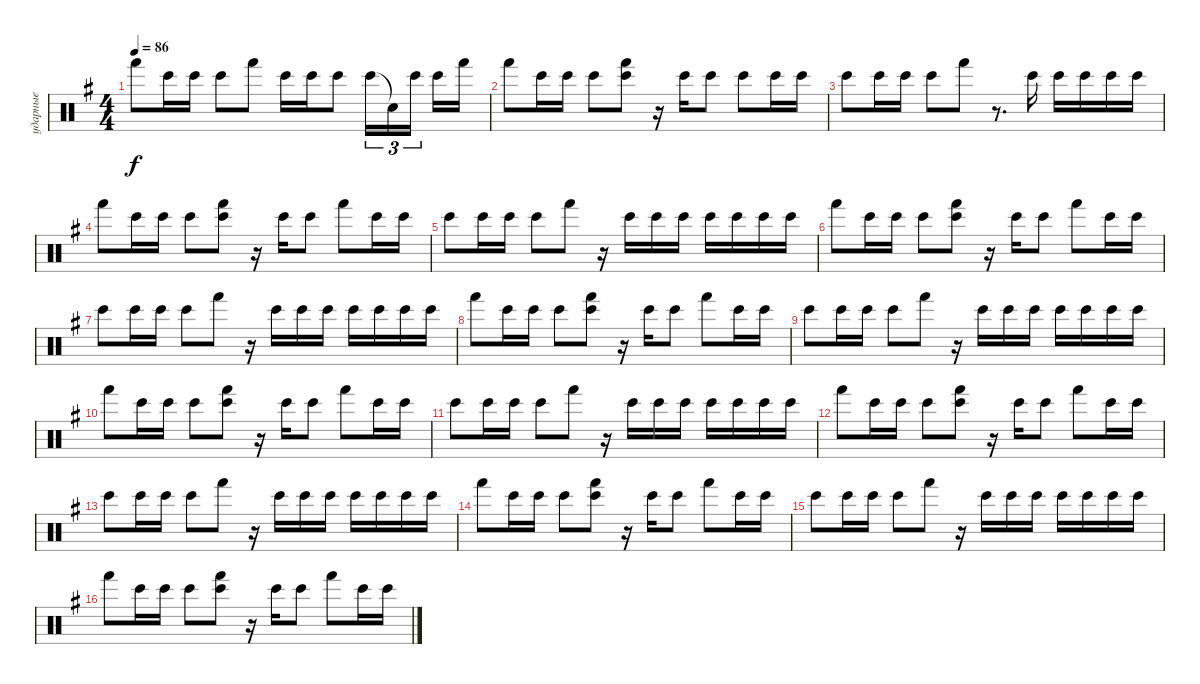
\track ("ударные" "ударные") {instrument percussion}
\staff {score}
\articulation defaults
\ts (4 4)
\tempo 86
\clef neutral
\ks eminor "Hand (hit)".8{dy f} "Bongo High (hit)".16 "Bongo High (hit)".16 "Bongo High (hit)".8 "Hand (hit)".8 "Bongo High (hit)".16 "Bongo High (hit)".16 "Bongo High (hit)".8 "Bongo High (hit)".16{tu (3 2)} "Snare (hit)"{t}.16{tu (3 2)} "Bongo High (hit)".16{tu (3 2) beam splitsecondary} "Bongo High (hit)".16 "Hand (hit)".16
|
"Hand (hit)".8 "Bongo High (hit)".16 "Bongo High (hit)".16 "Bongo High (hit)".8 ("Bongo High (hit)" "Hand (hit)").8 r.16 "Bongo High (hit)".16 "Bongo High (hit)".8 "Bongo High (hit)".8 "Bongo High (hit)".16 "Bongo High (hit)".16 |
"Bongo High (hit)".8 "Bongo High (hit)".16 "Bongo High (hit)".16 "Bongo High (hit)".8 "Hand (hit)".8 r.8{d} "Bongo High (hit)".16 "Bongo High (hit)".16 "Bongo High (hit)".16 "Bongo High (hit)".16 "Bongo High (hit)".16 |
"Hand (hit)".8 "Bongo High (hit)".16 "Bongo High (hit)".16 "Bongo High (hit)".8 ("Bongo High (hit)" "Hand (hit)").8 r.16 "Bongo High (hit)".16 "Bongo High (hit)".8 "Hand (hit)".8 "Bongo High (hit)".16 "Bongo High (hit)".16 |
"Bongo High (hit)".8 "Bongo High (hit)".16 "Bongo High (hit)".16 "Bongo High (hit)".8 "Hand (hit)".8 r.16 "Bongo High (hit)".16 "Bongo High (hit)".16 "Bongo High (hit)".16 "Bongo High (hit)".16 "Bongo High (hit)".16 "Bongo High (hit)".16 "Bongo High (hit)".16 |
"Hand (hit)".8 "Bongo High (hit)".16 "Bongo High (hit)".16 "Bongo High (hit)".8 ("Bongo High (hit)" "Hand (hit)").8 r.16 "Bongo High (hit)".16 "Bongo High (hit)".8 "Hand (hit)".8 "Bongo High (hit)".16 "Bongo High (hit)".16 |
"Bongo High (hit)".8 "Bongo High (hit)".16 "Bongo High (hit)".16 "Bongo High (hit)".8 "Hand (hit)".8 r.16 "Bongo High (hit)".16 "Bongo High (hit)".16 "Bongo High (hit)".16 "Bongo High (hit)".16 "Bongo High (hit)".16 "Bongo High (hit)".16 "Bongo High (hit)".16 |
"Hand (hit)".8 "Bongo High (hit)".16 "Bongo High (hit)".16 "Bongo High (hit)".8 ("Bongo High (hit)" "Hand (hit)").8 r.16 "Bongo High (hit)".16 "Bongo High (hit)".8 "Hand (hit)".8 "Bongo High (hit)".16 "Bongo High (hit)".16 |
"Bongo High (hit)".8 "Bongo High (hit)".16 "Bongo High (hit)".16 "Bongo High (hit)".8 "Hand (hit)".8 r.16 "Bongo High (hit)".16 "Bongo High (hit)".16 "Bongo High (hit)".16 "Bongo High (hit)".16 "Bongo High (hit)".16 "Bongo High (hit)".16 "Bongo High (hit)".16 |
"Hand (hit)".8 "Bongo High (hit)".16 "Bongo High (hit)".16 "Bongo High (hit)".8 ("Bongo High (hit)" "Hand (hit)").8 r.16 "Bongo High (hit)".16 "Bongo High (hit)".8 "Hand (hit)".8 "Bongo High (hit)".16 "Bongo High (hit)".16 |
"Bongo High (hit)".8 "Bongo High (hit)".16 "Bongo High (hit)".16 "Bongo High (hit)".8 "Hand (hit)".8 r.16 "Bongo High (hit)".16 "Bongo High (hit)".16 "Bongo High (hit)".16 "Bongo High (hit)".16 "Bongo High (hit)".16 "Bongo High (hit)".16 "Bongo High (hit)".16 |
"Hand (hit)".8 "Bongo High (hit)".16 "Bongo High (hit)".16 "Bongo High (hit)".8 ("Bongo High (hit)" "Hand (hit)").8 r.16 "Bongo High (hit)".16 "Bongo High (hit)".8 "Hand (hit)".8 "Bongo High (hit)".16 "Bongo High (hit)".16 |
"Bongo High (hit)".8 "Bongo High (hit)".16 "Bongo High (hit)".16 "Bongo High (hit)".8 "Hand (hit)".8 r.16 "Bongo High (hit)".16 "Bongo High (hit)".16 "Bongo High (hit)".16 "Bongo High (hit)".16 "Bongo High (hit)".16 "Bongo High (hit)".16 "Bongo High (hit)".16 |
"Hand (hit)".8 "Bongo High (hit)".16 "Bongo High (hit)".16 "Bongo High (hit)".8 ("Bongo High (hit)" "Hand (hit)").8 r.16 "Bongo High (hit)".16 "Bongo High (hit)".8 "Hand (hit)".8 "Bongo High (hit)".16 "Bongo High (hit)".16 |
"Bongo High (hit)".8 "Bongo High (hit)".16 "Bongo High (hit)".16 "Bongo High (hit)".8 "Hand (hit)".8 r.16 "Bongo High (hit)".16 "Bongo High (hit)".16 "Bongo High (hit)".16 "Bongo High (hit)".16 "Bongo High (hit)".16 "Bongo High (hit)".16 "Bongo High (hit)".16 |
"Hand (hit)".8 "Bongo High (hit)".16 "Bongo High (hit)".16 "Bongo High (hit)".8 ("Bongo High (hit)" "Hand (hit)").8 r.16 "Bongo High (hit)".16 "Bongo High (hit)".8 "Hand (hit)".8 "Bongo High (hit)".16 "Bongo High (hit)".16
